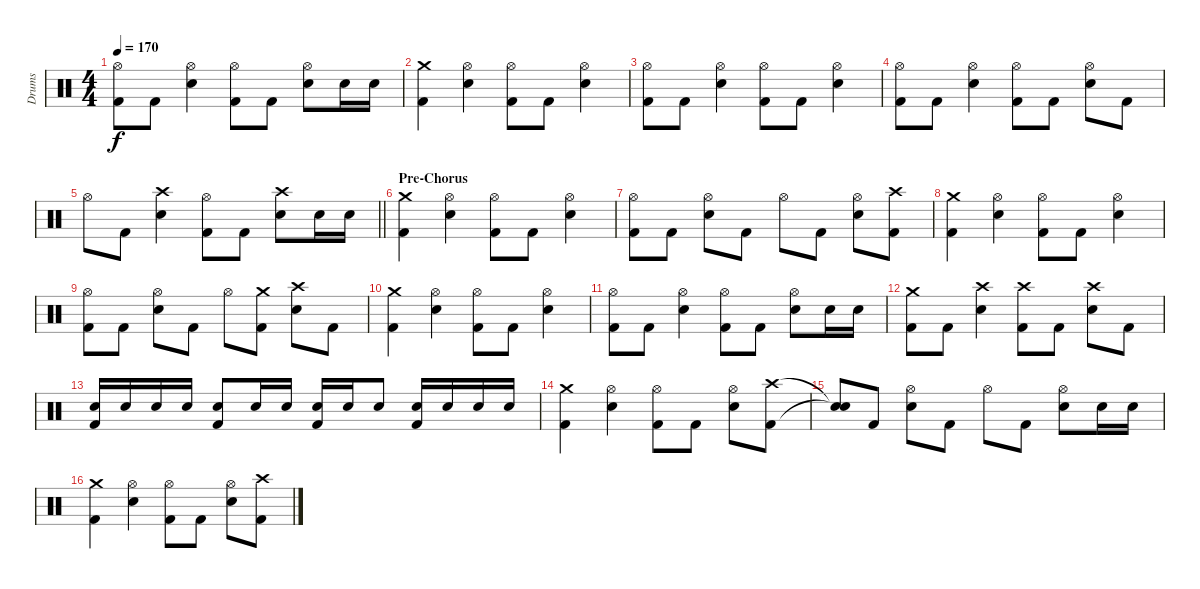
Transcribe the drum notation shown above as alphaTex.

\track ("Drums" "Drums") {instrument percussion}
\staff {score}
\articulation defaults
\ts (4 4)
\tempo 170
\clef neutral
\ks c
("Hi-Hat (open)"{t} "Kick (hit) 2"{t}).8{dy f} "Kick (hit) 2".8 ("Hi-Hat (open)" "Electric Snare (hit)").4 ("Hi-Hat (open)" "Kick (hit) 2").8 "Kick (hit) 2".8 ("Hi-Hat (open)" "Electric Snare (hit)").8 "Electric Snare (hit)".16 "Electric Snare (hit)".16 |
("Crash medium (hit)" "Kick (hit) 2").4 ("Hi-Hat (open)" "Electric Snare (hit)").4 ("Hi-Hat (open)" "Kick (hit) 2").8 "Kick (hit) 2".8 ("Hi-Hat (open)" "Electric Snare (hit)").4 |
("Hi-Hat (open)" "Kick (hit) 2").8 "Kick (hit) 2".8 ("Hi-Hat (open)" "Electric Snare (hit)").4 ("Hi-Hat (open)" "Kick (hit) 2").8 "Kick (hit) 2".8 ("Hi-Hat (open)" "Electric Snare (hit)").4 |
("Hi-Hat (open)" "Kick (hit) 2").8 "Kick (hit) 2".8 ("Hi-Hat (open)" "Electric Snare (hit)").4 ("Hi-Hat (open)" "Kick (hit) 2").8 "Kick (hit) 2".8 ("Hi-Hat (open)" "Electric Snare (hit)").8 "Kick (hit) 2".8 |
\barLineRight lightlight "Hi-Hat (open)".8 "Kick (hit) 2".8
("Crash high (hit)" "Electric Snare (hit)").4 ("Hi-Hat (open)" "Kick (hit) 2").8 "Kick (hit) 2".8 ("Crash high (hit)" "Electric Snare (hit)").8 "Electric Snare (hit)".16 "Electric Snare (hit)".16 |
\section ("" "Pre-Chorus")
("Crash medium (hit)" "Kick (hit) 2").4 ("Hi-Hat (open)" "Electric Snare (hit)").4 ("Hi-Hat (open)" "Kick (hit) 2").8 "Kick (hit) 2".8 ("Hi-Hat (open)" "Electric Snare (hit)").4 |
("Hi-Hat (open)" "Kick (hit) 2").8 "Kick (hit) 2".8 ("Hi-Hat (open)" "Electric Snare (hit)").8 "Kick (hit) 2".8 "Hi-Hat (open)".8 "Kick (hit) 2".8 ("Hi-Hat (open)" "Electric Snare (hit)").8 ("Crash high (hit)" "Kick (hit) 2").8 |
("Crash medium (hit)" "Kick (hit) 2").4 ("Hi-Hat (open)" "Electric Snare (hit)").4 ("Hi-Hat (open)" "Kick (hit) 2").8 "Kick (hit) 2".8 ("Hi-Hat (open)" "Electric Snare (hit)").4 |
("Hi-Hat (open)" "Kick (hit) 2").8 "Kick (hit) 2".8 ("Hi-Hat (open)" "Electric Snare (hit)").8 "Kick (hit) 2".8 "Hi-Hat (open)".8 ("Crash medium (hit)" "Kick (hit) 2").8 ("Crash high (hit)" "Electric Snare (hit)").8 "Kick (hit) 2".8 |
("Crash medium (hit)" "Kick (hit) 2").4 ("Hi-Hat (open)" "Electric Snare (hit)").4 ("Hi-Hat (open)" "Kick (hit) 2").8 "Kick (hit) 2".8 ("Hi-Hat (open)" "Electric Snare (hit)").4 |
("Hi-Hat (open)" "Kick (hit) 2").8 "Kick (hit) 2".8 ("Hi-Hat (open)" "Electric Snare (hit)").4 ("Hi-Hat (open)" "Kick (hit) 2").8 "Kick (hit) 2".8 ("Hi-Hat (open)" "Electric Snare (hit)").8 "Electric Snare (hit)".16 "Electric Snare (hit)".16 |
("Crash medium (hit)" "Kick (hit) 2").8 "Kick (hit) 2".8 ("Crash high (hit)" "Electric Snare (hit)").4 ("Crash high (hit)" "Kick (hit) 2").8 "Kick (hit) 2".8 ("Crash high (hit)" "Electric Snare (hit)").8 "Kick (hit) 2".8 |
("Electric Snare (hit)" "Kick (hit) 2").16 "Electric Snare (hit)".16 "Electric Snare (hit)".16 "Electric Snare (hit)".16 ("Electric Snare (hit)" "Kick (hit) 2").8 "Electric Snare (hit)".16 "Electric Snare (hit)".16 ("Electric Snare (hit)" "Kick (hit) 2").16 "Electric Snare (hit)".16 "Electric Snare (hit)".8 ("Electric Snare (hit)" "Kick (hit) 2").16 "Electric Snare (hit)".16 "Electric Snare (hit)".16 "Electric Snare (hit)".16 |
("Crash medium (hit)" "Kick (hit) 2").4 ("Hi-Hat (open)" "Electric Snare (hit)").4 ("Hi-Hat (open)" "Kick (hit) 2").8 "Kick (hit) 2".8 ("Hi-Hat (open)" "Electric Snare (hit)").8 ("Crash high (hit)" "Kick (hit) 2").8 |
("Snare (hit)"{t} "Snare (hit)"{t}).8 "Kick (hit) 2".8 ("Hi-Hat (open)" "Electric Snare (hit)").8 "Kick (hit) 2".8 "Hi-Hat (open)".8 "Kick (hit) 2".8 ("Hi-Hat (open)" "Electric Snare (hit)").8 "Electric Snare (hit)".16 "Electric Snare (hit)".16 |
("Crash medium (hit)" "Kick (hit) 2").4 ("Hi-Hat (open)" "Electric Snare (hit)").4 ("Hi-Hat (open)" "Kick (hit) 2").8 "Kick (hit) 2".8 ("Hi-Hat (open)" "Electric Snare (hit)").8 ("Crash high (hit)" "Kick (hit) 2").8
